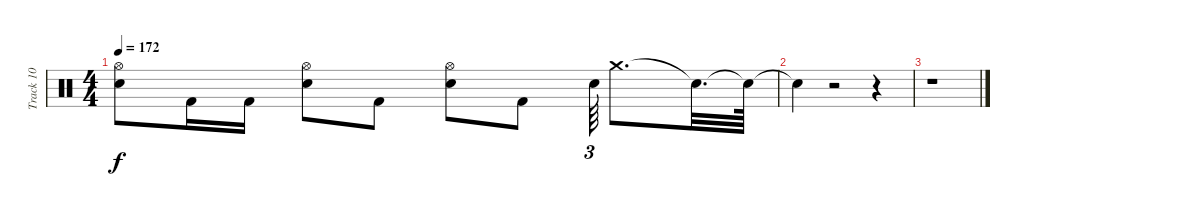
\track ("Track 10" "Track 10") {instrument percussion}
\staff {score}
\articulation defaults
\ts (4 4)
\tempo 172
\clef neutral
\ks c
("Hi-Hat (open)" "Electric Snare (hit)").8{dy f} "Kick (hit) 2".16 "Kick (hit) 2".16 ("Hi-Hat (open)" "Electric Snare (hit)").8 "Kick (hit) 2".8 ("Hi-Hat (open)" "Electric Snare (hit)").8 "Kick (hit) 2".8 "Electric Snare (hit)".64{tu (3 2)} "Crash medium (hit)".8{d} "Snare (hit)"{t}.32{d} "Snare (hit)"{t}.64 |
"Snare (hit)"{t}.4 r.2 r.4 |
r.1
